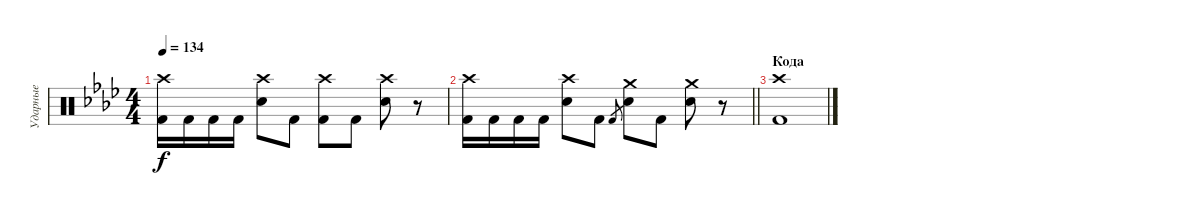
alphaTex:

\track ("Ударные" "Ударные") {instrument percussion}
\staff {score}
\articulation defaults
\ts (4 4)
\tempo 134
\clef neutral
\ks fminor
("Crash high (hit)" "Kick (hit) 2").16{dy f} "Kick (hit) 2".16 "Kick (hit) 2".16 "Kick (hit) 2".16 ("Crash high (hit)" "Electric Snare (hit)").8 "Kick (hit) 2".8 ("Crash high (hit)" "Kick (hit) 2").8 "Kick (hit) 2".8 ("Crash high (hit)" "Electric Snare (hit)").8 r.8 |
\barLineRight lightlight
("Crash high (hit)" "Kick (hit) 2").16 "Kick (hit) 2".16 "Kick (hit) 2".16 "Kick (hit) 2".16 ("Crash high (hit)" "Electric Snare (hit)").8 "Kick (hit) 2".8 "Kick (hit) 2".8{gr} ("Crash medium (hit)" "Electric Snare (hit)").8 "Kick (hit) 2".8 ("Crash medium (hit)" "Electric Snare (hit)").8 r.8 |
\section ("" "Кода")
("Crash high (hit)" "Kick (hit) 2").1
